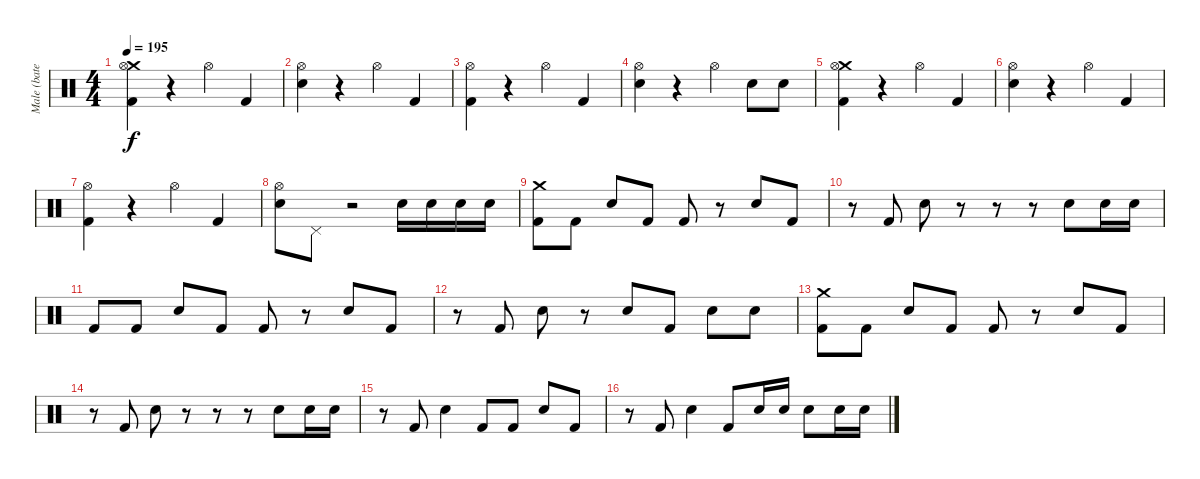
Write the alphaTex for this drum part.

\track ("Male (bateria)" "Male (bate") {instrument percussion}
\staff {score}
\articulation defaults
\ts (4 4)
\tempo 195
\clef neutral
\ks c
("Kick (hit) 2" "Crash medium (hit)" "Hi-Hat (open)").4{dy f} r.4 "Hi-Hat (open)".4 "Kick (hit) 2".4 |
("Electric Snare (hit)" "Hi-Hat (open)").4 r.4 "Hi-Hat (open)".4 "Kick (hit) 2".4 |
("Kick (hit) 2" "Hi-Hat (open)").4 r.4 "Hi-Hat (open)".4 "Kick (hit) 2".4 |
("Electric Snare (hit)" "Hi-Hat (open)").4 r.4 "Hi-Hat (open)".4 "Electric Snare (hit)".8 "Electric Snare (hit)".8 |
("Kick (hit) 2" "Crash medium (hit)" "Hi-Hat (open)").4 r.4 "Hi-Hat (open)".4 "Kick (hit) 2".4 |
("Electric Snare (hit)" "Hi-Hat (open)").4 r.4 "Hi-Hat (open)".4 "Kick (hit) 2".4 |
("Kick (hit) 2" "Hi-Hat (open)").4 r.4 "Hi-Hat (open)".4 "Kick (hit) 2".4 |
("Electric Snare (hit)" "Hi-Hat (open)").8 "Pedal Hi-Hat (hit)".8 r.2 "Electric Snare (hit)".16 "Electric Snare (hit)".16 "Electric Snare (hit)".16 "Electric Snare (hit)".16 |
("Kick (hit) 2" "Crash medium (hit)").8 "Kick (hit) 2".8 "Electric Snare (hit)".8 "Kick (hit) 2".8 "Kick (hit) 2".8 r.8 "Electric Snare (hit)".8 "Kick (hit) 2".8 |
r.8 "Kick (hit) 2".8 "Electric Snare (hit)".8 r.8 r.8 r.8 "Electric Snare (hit)".8 "Electric Snare (hit)".16 "Electric Snare (hit)".16 |
"Kick (hit) 2".8 "Kick (hit) 2".8 "Electric Snare (hit)".8 "Kick (hit) 2".8 "Kick (hit) 2".8 r.8 "Electric Snare (hit)".8 "Kick (hit) 2".8 |
r.8 "Kick (hit) 2".8 "Electric Snare (hit)".8 r.8 "Electric Snare (hit)".8 "Kick (hit) 2".8 "Electric Snare (hit)".8 "Electric Snare (hit)".8 |
("Kick (hit) 2" "Crash medium (hit)").8 "Kick (hit) 2".8 "Electric Snare (hit)".8 "Kick (hit) 2".8 "Kick (hit) 2".8 r.8 "Electric Snare (hit)".8 "Kick (hit) 2".8 |
r.8 "Kick (hit) 2".8 "Electric Snare (hit)".8 r.8 r.8 r.8 "Electric Snare (hit)".8 "Electric Snare (hit)".16 "Electric Snare (hit)".16 |
r.8 "Kick (hit) 2".8 "Electric Snare (hit)".4 "Kick (hit) 2".8 "Kick (hit) 2".8 "Electric Snare (hit)".8 "Kick (hit) 2".8 |
r.8 "Kick (hit) 2".8 "Electric Snare (hit)".4 "Kick (hit) 2".8 "Electric Snare (hit)".16 "Electric Snare (hit)".16 "Electric Snare (hit)".8 "Electric Snare (hit)".16 "Electric Snare (hit)".16
